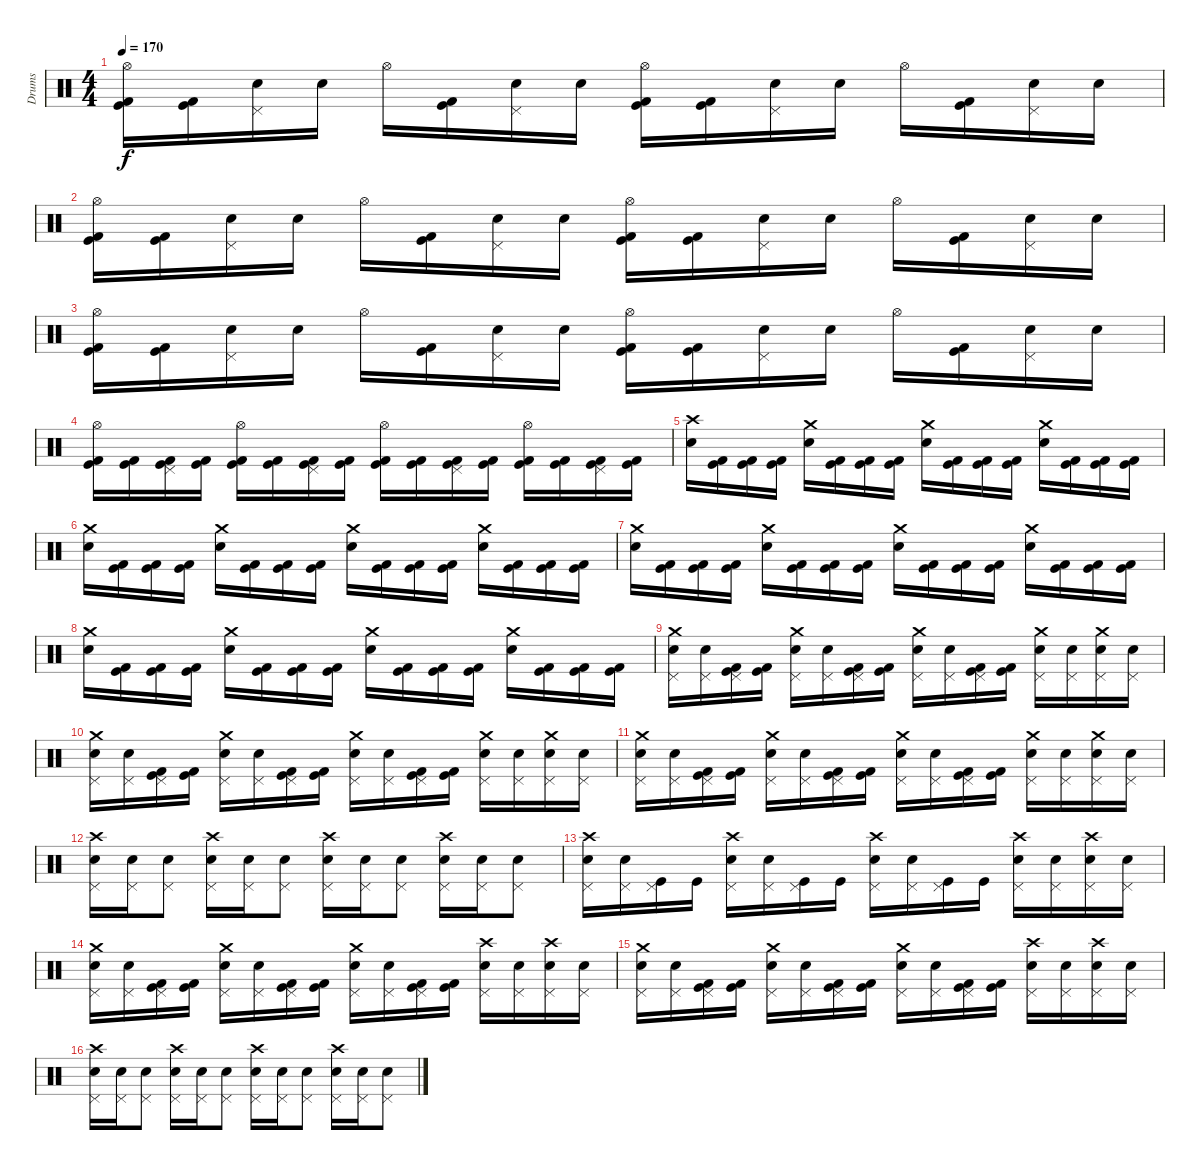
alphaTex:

\track ("Drums" "Drums") {instrument percussion}
\staff {score}
\articulation defaults
\ts (4 4)
\tempo 170
\clef neutral
\ks c
("Hi-Hat (open)" "Kick (hit) 2" "Kick (hit)").16{dy f} ("Kick (hit) 2" "Kick (hit)").16 ("Pedal Hi-Hat (hit)" "Electric Snare (hit)").16 "Electric Snare (hit)".16 "Hi-Hat (open)".16 ("Kick (hit) 2" "Kick (hit)").16 ("Pedal Hi-Hat (hit)" "Electric Snare (hit)").16 "Electric Snare (hit)".16 ("Hi-Hat (open)" "Kick (hit) 2" "Kick (hit)").16 ("Kick (hit) 2" "Kick (hit)").16 ("Pedal Hi-Hat (hit)" "Electric Snare (hit)").16 "Electric Snare (hit)".16 "Hi-Hat (open)".16 ("Kick (hit) 2" "Kick (hit)").16 ("Pedal Hi-Hat (hit)" "Electric Snare (hit)").16 "Electric Snare (hit)".16 |
("Hi-Hat (open)" "Kick (hit) 2" "Kick (hit)").16 ("Kick (hit) 2" "Kick (hit)").16 ("Pedal Hi-Hat (hit)" "Electric Snare (hit)").16 "Electric Snare (hit)".16 "Hi-Hat (open)".16 ("Kick (hit) 2" "Kick (hit)").16 ("Pedal Hi-Hat (hit)" "Electric Snare (hit)").16 "Electric Snare (hit)".16 ("Hi-Hat (open)" "Kick (hit) 2" "Kick (hit)").16 ("Kick (hit) 2" "Kick (hit)").16 ("Pedal Hi-Hat (hit)" "Electric Snare (hit)").16 "Electric Snare (hit)".16 "Hi-Hat (open)".16 ("Kick (hit) 2" "Kick (hit)").16 ("Pedal Hi-Hat (hit)" "Electric Snare (hit)").16 "Electric Snare (hit)".16 |
("Hi-Hat (open)" "Kick (hit) 2" "Kick (hit)").16 ("Kick (hit) 2" "Kick (hit)").16 ("Pedal Hi-Hat (hit)" "Electric Snare (hit)").16 "Electric Snare (hit)".16 "Hi-Hat (open)".16 ("Kick (hit) 2" "Kick (hit)").16 ("Pedal Hi-Hat (hit)" "Electric Snare (hit)").16 "Electric Snare (hit)".16 ("Hi-Hat (open)" "Kick (hit) 2" "Kick (hit)").16 ("Kick (hit) 2" "Kick (hit)").16 ("Pedal Hi-Hat (hit)" "Electric Snare (hit)").16 "Electric Snare (hit)".16 "Hi-Hat (open)".16 ("Kick (hit) 2" "Kick (hit)").16 ("Pedal Hi-Hat (hit)" "Electric Snare (hit)").16 "Electric Snare (hit)".16 |
("Hi-Hat (open)" "Kick (hit) 2" "Kick (hit)").16 ("Kick (hit) 2" "Kick (hit)").16 ("Pedal Hi-Hat (hit)" "Kick (hit) 2" "Kick (hit)").16 ("Kick (hit) 2" "Kick (hit)").16 ("Hi-Hat (open)" "Kick (hit) 2" "Kick (hit)").16 ("Kick (hit) 2" "Kick (hit)").16 ("Pedal Hi-Hat (hit)" "Kick (hit) 2" "Kick (hit)").16 ("Kick (hit) 2" "Kick (hit)").16 ("Hi-Hat (open)" "Kick (hit) 2" "Kick (hit)").16 ("Kick (hit) 2" "Kick (hit)").16 ("Pedal Hi-Hat (hit)" "Kick (hit) 2" "Kick (hit)").16 ("Kick (hit) 2" "Kick (hit)").16 ("Hi-Hat (open)" "Kick (hit) 2" "Kick (hit)").16 ("Kick (hit) 2" "Kick (hit)").16 ("Pedal Hi-Hat (hit)" "Kick (hit) 2" "Kick (hit)").16 ("Kick (hit) 2" "Kick (hit)").16 |
("Crash high (hit)" "Electric Snare (hit)").16 ("Kick (hit) 2" "Kick (hit)").16 ("Kick (hit) 2" "Kick (hit)").16 ("Kick (hit) 2" "Kick (hit)").16 ("Crash medium (hit)" "Electric Snare (hit)").16 ("Kick (hit) 2" "Kick (hit)").16 ("Kick (hit) 2" "Kick (hit)").16 ("Kick (hit) 2" "Kick (hit)").16 ("Crash medium (hit)" "Electric Snare (hit)").16 ("Kick (hit) 2" "Kick (hit)").16 ("Kick (hit) 2" "Kick (hit)").16 ("Kick (hit) 2" "Kick (hit)").16 ("Crash medium (hit)" "Electric Snare (hit)").16 ("Kick (hit) 2" "Kick (hit)").16 ("Kick (hit) 2" "Kick (hit)").16 ("Kick (hit) 2" "Kick (hit)").16 |
("Crash medium (hit)" "Electric Snare (hit)").16 ("Kick (hit) 2" "Kick (hit)").16 ("Kick (hit) 2" "Kick (hit)").16 ("Kick (hit) 2" "Kick (hit)").16 ("Crash medium (hit)" "Electric Snare (hit)").16 ("Kick (hit) 2" "Kick (hit)").16 ("Kick (hit) 2" "Kick (hit)").16 ("Kick (hit) 2" "Kick (hit)").16 ("Crash medium (hit)" "Electric Snare (hit)").16 ("Kick (hit) 2" "Kick (hit)").16 ("Kick (hit) 2" "Kick (hit)").16 ("Kick (hit) 2" "Kick (hit)").16 ("Crash medium (hit)" "Electric Snare (hit)").16 ("Kick (hit) 2" "Kick (hit)").16 ("Kick (hit) 2" "Kick (hit)").16 ("Kick (hit) 2" "Kick (hit)").16 |
("Crash medium (hit)" "Electric Snare (hit)").16 ("Kick (hit) 2" "Kick (hit)").16 ("Kick (hit) 2" "Kick (hit)").16 ("Kick (hit) 2" "Kick (hit)").16 ("Crash medium (hit)" "Electric Snare (hit)").16 ("Kick (hit) 2" "Kick (hit)").16 ("Kick (hit) 2" "Kick (hit)").16 ("Kick (hit) 2" "Kick (hit)").16 ("Crash medium (hit)" "Electric Snare (hit)").16 ("Kick (hit) 2" "Kick (hit)").16 ("Kick (hit) 2" "Kick (hit)").16 ("Kick (hit) 2" "Kick (hit)").16 ("Crash medium (hit)" "Electric Snare (hit)").16 ("Kick (hit) 2" "Kick (hit)").16 ("Kick (hit) 2" "Kick (hit)").16 ("Kick (hit) 2" "Kick (hit)").16 |
("Crash medium (hit)" "Electric Snare (hit)").16 ("Kick (hit) 2" "Kick (hit)").16 ("Kick (hit) 2" "Kick (hit)").16 ("Kick (hit) 2" "Kick (hit)").16 ("Crash medium (hit)" "Electric Snare (hit)").16 ("Kick (hit) 2" "Kick (hit)").16 ("Kick (hit) 2" "Kick (hit)").16 ("Kick (hit) 2" "Kick (hit)").16 ("Crash medium (hit)" "Electric Snare (hit)").16 ("Kick (hit) 2" "Kick (hit)").16 ("Kick (hit) 2" "Kick (hit)").16 ("Kick (hit) 2" "Kick (hit)").16 ("Crash medium (hit)" "Electric Snare (hit)").16 ("Kick (hit) 2" "Kick (hit)").16 ("Kick (hit) 2" "Kick (hit)").16 ("Kick (hit) 2" "Kick (hit)").16 |
("Crash medium (hit)" "Pedal Hi-Hat (hit)" "Electric Snare (hit)").16 ("Pedal Hi-Hat (hit)" "Electric Snare (hit)").16 ("Pedal Hi-Hat (hit)" "Kick (hit) 2" "Kick (hit)").16 ("Kick (hit) 2" "Kick (hit)").16 ("Crash medium (hit)" "Pedal Hi-Hat (hit)" "Electric Snare (hit)").16 ("Pedal Hi-Hat (hit)" "Electric Snare (hit)").16 ("Pedal Hi-Hat (hit)" "Kick (hit) 2" "Kick (hit)").16 ("Kick (hit) 2" "Kick (hit)").16 ("Crash medium (hit)" "Pedal Hi-Hat (hit)" "Electric Snare (hit)").16 ("Pedal Hi-Hat (hit)" "Electric Snare (hit)").16 ("Pedal Hi-Hat (hit)" "Kick (hit) 2" "Kick (hit)").16 ("Kick (hit) 2" "Kick (hit)").16 ("Crash medium (hit)" "Pedal Hi-Hat (hit)" "Electric Snare (hit)").16 ("Pedal Hi-Hat (hit)" "Electric Snare (hit)").16 ("Crash medium (hit)" "Pedal Hi-Hat (hit)" "Electric Snare (hit)").16 ("Pedal Hi-Hat (hit)" "Electric Snare (hit)").16 |
("Crash medium (hit)" "Pedal Hi-Hat (hit)" "Electric Snare (hit)").16 ("Pedal Hi-Hat (hit)" "Electric Snare (hit)").16 ("Pedal Hi-Hat (hit)" "Kick (hit) 2" "Kick (hit)").16 ("Kick (hit) 2" "Kick (hit)").16 ("Crash medium (hit)" "Pedal Hi-Hat (hit)" "Electric Snare (hit)").16 ("Pedal Hi-Hat (hit)" "Electric Snare (hit)").16 ("Pedal Hi-Hat (hit)" "Kick (hit) 2" "Kick (hit)").16 ("Kick (hit) 2" "Kick (hit)").16 ("Crash medium (hit)" "Pedal Hi-Hat (hit)" "Electric Snare (hit)").16 ("Pedal Hi-Hat (hit)" "Electric Snare (hit)").16 ("Pedal Hi-Hat (hit)" "Kick (hit) 2" "Kick (hit)").16 ("Kick (hit) 2" "Kick (hit)").16 ("Crash medium (hit)" "Pedal Hi-Hat (hit)" "Electric Snare (hit)").16 ("Pedal Hi-Hat (hit)" "Electric Snare (hit)").16 ("Crash medium (hit)" "Pedal Hi-Hat (hit)" "Electric Snare (hit)").16 ("Pedal Hi-Hat (hit)" "Electric Snare (hit)").16 |
("Crash medium (hit)" "Pedal Hi-Hat (hit)" "Electric Snare (hit)").16 ("Pedal Hi-Hat (hit)" "Electric Snare (hit)").16 ("Pedal Hi-Hat (hit)" "Kick (hit) 2" "Kick (hit)").16 ("Kick (hit) 2" "Kick (hit)").16 ("Crash medium (hit)" "Pedal Hi-Hat (hit)" "Electric Snare (hit)").16 ("Pedal Hi-Hat (hit)" "Electric Snare (hit)").16 ("Pedal Hi-Hat (hit)" "Kick (hit) 2" "Kick (hit)").16 ("Kick (hit) 2" "Kick (hit)").16 ("Crash medium (hit)" "Pedal Hi-Hat (hit)" "Electric Snare (hit)").16 ("Pedal Hi-Hat (hit)" "Electric Snare (hit)").16 ("Pedal Hi-Hat (hit)" "Kick (hit) 2" "Kick (hit)").16 ("Kick (hit) 2" "Kick (hit)").16 ("Crash medium (hit)" "Pedal Hi-Hat (hit)" "Electric Snare (hit)").16 ("Pedal Hi-Hat (hit)" "Electric Snare (hit)").16 ("Crash medium (hit)" "Pedal Hi-Hat (hit)" "Electric Snare (hit)").16 ("Pedal Hi-Hat (hit)" "Electric Snare (hit)").16 |
("Crash high (hit)" "Pedal Hi-Hat (hit)" "Electric Snare (hit)").16 ("Pedal Hi-Hat (hit)" "Electric Snare (hit)").16 ("Pedal Hi-Hat (hit)" "Electric Snare (hit)").8 ("Crash high (hit)" "Pedal Hi-Hat (hit)" "Electric Snare (hit)").16 ("Pedal Hi-Hat (hit)" "Electric Snare (hit)").16 ("Pedal Hi-Hat (hit)" "Electric Snare (hit)").8 ("Crash high (hit)" "Pedal Hi-Hat (hit)" "Electric Snare (hit)").16 ("Pedal Hi-Hat (hit)" "Electric Snare (hit)").16 ("Pedal Hi-Hat (hit)" "Electric Snare (hit)").8 ("Crash high (hit)" "Pedal Hi-Hat (hit)" "Electric Snare (hit)").16 ("Pedal Hi-Hat (hit)" "Electric Snare (hit)").16 ("Pedal Hi-Hat (hit)" "Electric Snare (hit)").8 |
("Crash high (hit)" "Pedal Hi-Hat (hit)" "Electric Snare (hit)").16 ("Pedal Hi-Hat (hit)" "Electric Snare (hit)").16 ("Pedal Hi-Hat (hit)" "Kick (hit)").16 "Kick (hit)".16 ("Crash high (hit)" "Pedal Hi-Hat (hit)" "Electric Snare (hit)").16 ("Pedal Hi-Hat (hit)" "Electric Snare (hit)").16 ("Pedal Hi-Hat (hit)" "Kick (hit)").16 "Kick (hit)".16 ("Crash high (hit)" "Pedal Hi-Hat (hit)" "Electric Snare (hit)").16 ("Pedal Hi-Hat (hit)" "Electric Snare (hit)").16 ("Pedal Hi-Hat (hit)" "Kick (hit)").16 "Kick (hit)".16 ("Crash high (hit)" "Pedal Hi-Hat (hit)" "Electric Snare (hit)").16 ("Pedal Hi-Hat (hit)" "Electric Snare (hit)").16 ("Crash high (hit)" "Pedal Hi-Hat (hit)" "Electric Snare (hit)").16 ("Pedal Hi-Hat (hit)" "Electric Snare (hit)").16 |
("Crash medium (hit)" "Pedal Hi-Hat (hit)" "Electric Snare (hit)").16 ("Pedal Hi-Hat (hit)" "Electric Snare (hit)").16 ("Pedal Hi-Hat (hit)" "Kick (hit) 2" "Kick (hit)").16 ("Kick (hit) 2" "Kick (hit)").16 ("Crash medium (hit)" "Pedal Hi-Hat (hit)" "Electric Snare (hit)").16 ("Pedal Hi-Hat (hit)" "Electric Snare (hit)").16 ("Pedal Hi-Hat (hit)" "Kick (hit) 2" "Kick (hit)").16 ("Kick (hit) 2" "Kick (hit)").16 ("Crash medium (hit)" "Pedal Hi-Hat (hit)" "Electric Snare (hit)").16 ("Pedal Hi-Hat (hit)" "Electric Snare (hit)").16 ("Pedal Hi-Hat (hit)" "Kick (hit) 2" "Kick (hit)").16 ("Kick (hit) 2" "Kick (hit)").16 ("Crash high (hit)" "Pedal Hi-Hat (hit)" "Electric Snare (hit)").16 ("Pedal Hi-Hat (hit)" "Electric Snare (hit)").16 ("Crash high (hit)" "Pedal Hi-Hat (hit)" "Electric Snare (hit)").16 ("Pedal Hi-Hat (hit)" "Electric Snare (hit)").16 |
("Crash medium (hit)" "Pedal Hi-Hat (hit)" "Electric Snare (hit)").16 ("Pedal Hi-Hat (hit)" "Electric Snare (hit)").16 ("Pedal Hi-Hat (hit)" "Kick (hit) 2" "Kick (hit)").16 ("Kick (hit) 2" "Kick (hit)").16 ("Crash medium (hit)" "Pedal Hi-Hat (hit)" "Electric Snare (hit)").16 ("Pedal Hi-Hat (hit)" "Electric Snare (hit)").16 ("Pedal Hi-Hat (hit)" "Kick (hit) 2" "Kick (hit)").16 ("Kick (hit) 2" "Kick (hit)").16 ("Crash medium (hit)" "Pedal Hi-Hat (hit)" "Electric Snare (hit)").16 ("Pedal Hi-Hat (hit)" "Electric Snare (hit)").16 ("Pedal Hi-Hat (hit)" "Kick (hit) 2" "Kick (hit)").16 ("Kick (hit) 2" "Kick (hit)").16 ("Crash high (hit)" "Pedal Hi-Hat (hit)" "Electric Snare (hit)").16 ("Pedal Hi-Hat (hit)" "Electric Snare (hit)").16 ("Crash high (hit)" "Pedal Hi-Hat (hit)" "Electric Snare (hit)").16 ("Pedal Hi-Hat (hit)" "Electric Snare (hit)").16 |
("Crash high (hit)" "Pedal Hi-Hat (hit)" "Electric Snare (hit)").16 ("Pedal Hi-Hat (hit)" "Electric Snare (hit)").16 ("Pedal Hi-Hat (hit)" "Electric Snare (hit)").8 ("Crash high (hit)" "Pedal Hi-Hat (hit)" "Electric Snare (hit)").16 ("Pedal Hi-Hat (hit)" "Electric Snare (hit)").16 ("Pedal Hi-Hat (hit)" "Electric Snare (hit)").8 ("Crash high (hit)" "Pedal Hi-Hat (hit)" "Electric Snare (hit)").16 ("Pedal Hi-Hat (hit)" "Electric Snare (hit)").16 ("Pedal Hi-Hat (hit)" "Electric Snare (hit)").8 ("Crash high (hit)" "Pedal Hi-Hat (hit)" "Electric Snare (hit)").16 ("Pedal Hi-Hat (hit)" "Electric Snare (hit)").16 ("Pedal Hi-Hat (hit)" "Electric Snare (hit)").8
